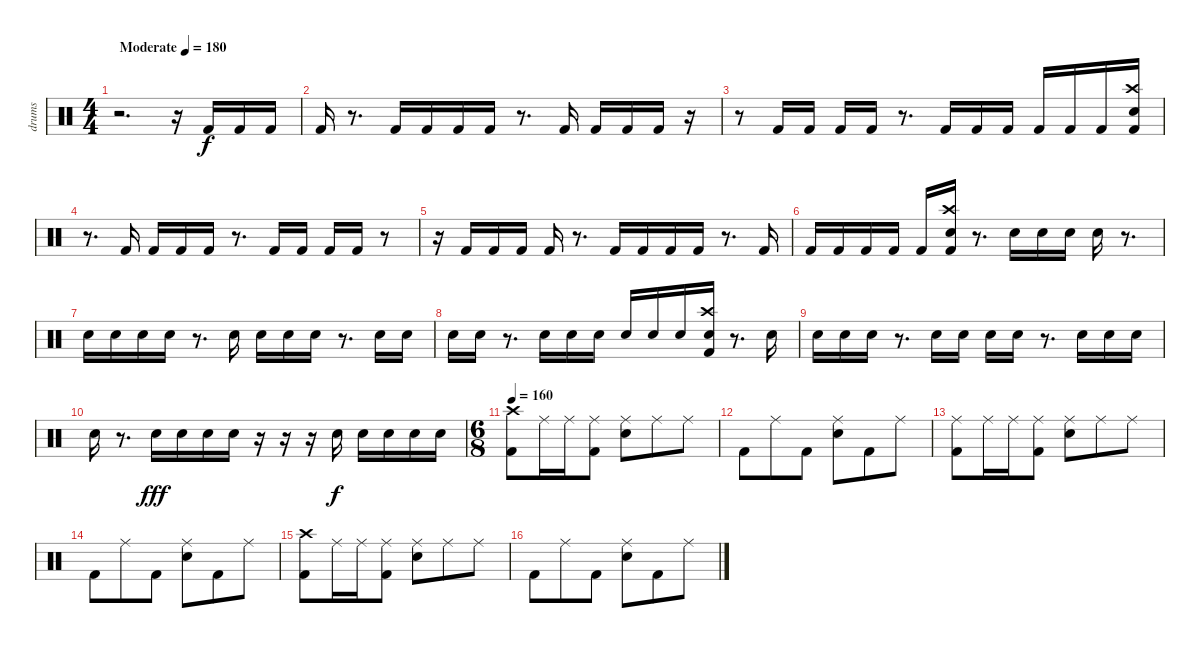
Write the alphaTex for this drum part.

\track ("drums" "drums") {instrument percussion}
\staff {score}
\articulation defaults
\ts (4 4)
\tempo (180 "Moderate")
\clef neutral
\ks c
r.2{d dy f} r.16 "Kick (hit) 2".16 "Kick (hit) 2".16 "Kick (hit) 2".16 |
"Kick (hit) 2".16 r.8{d} "Kick (hit) 2".16 "Kick (hit) 2".16 "Kick (hit) 2".16 "Kick (hit) 2".16 r.8{d} "Kick (hit) 2".16 "Kick (hit) 2".16 "Kick (hit) 2".16 "Kick (hit) 2".16 r.16 |
r.8 "Kick (hit) 2".16 "Kick (hit) 2".16 "Kick (hit) 2".16 "Kick (hit) 2".16 r.8{d} "Kick (hit) 2".16 "Kick (hit) 2".16 "Kick (hit) 2".16 "Kick (hit) 2".16 "Kick (hit) 2".16 "Kick (hit) 2".16 ("Crash high (hit)" "Electric Snare (hit)" "Kick (hit) 2").16 |
r.8{d} "Kick (hit) 2".16 "Kick (hit) 2".16 "Kick (hit) 2".16 "Kick (hit) 2".16 r.8{d} "Kick (hit) 2".16 "Kick (hit) 2".16 "Kick (hit) 2".16 "Kick (hit) 2".16 r.8 |
r.16 "Kick (hit) 2".16 "Kick (hit) 2".16 "Kick (hit) 2".16 "Kick (hit) 2".16 r.8{d} "Kick (hit) 2".16 "Kick (hit) 2".16 "Kick (hit) 2".16 "Kick (hit) 2".16 r.8{d} "Kick (hit) 2".16 |
"Kick (hit) 2".16 "Kick (hit) 2".16 "Kick (hit) 2".16 "Kick (hit) 2".16 "Kick (hit) 2".16 ("Crash high (hit)" "Electric Snare (hit)" "Kick (hit) 2").16 r.8{d} "Electric Snare (hit)".16 "Electric Snare (hit)".16 "Electric Snare (hit)".16 "Electric Snare (hit)".16 r.8{d} |
"Electric Snare (hit)".16 "Electric Snare (hit)".16 "Electric Snare (hit)".16 "Electric Snare (hit)".16 r.8{d} "Electric Snare (hit)".16 "Electric Snare (hit)".16 "Electric Snare (hit)".16 "Electric Snare (hit)".16 r.8{d} "Electric Snare (hit)".16 "Electric Snare (hit)".16 |
"Electric Snare (hit)".16 "Electric Snare (hit)".16 r.8{d} "Electric Snare (hit)".16 "Electric Snare (hit)".16 "Electric Snare (hit)".16 "Electric Snare (hit)".16 "Electric Snare (hit)".16 "Electric Snare (hit)".16 ("Crash high (hit)" "Kick (hit) 2" "Electric Snare (hit)").16 r.8{d} "Electric Snare (hit)".16 |
"Electric Snare (hit)".16 "Electric Snare (hit)".16 "Electric Snare (hit)".16 r.8{d} "Electric Snare (hit)".16 "Electric Snare (hit)".16 "Electric Snare (hit)".16 "Electric Snare (hit)".16 r.8{d} "Electric Snare (hit)".16 "Electric Snare (hit)".16 "Electric Snare (hit)".16 |
"Electric Snare (hit)".16 r.8{d} "Electric Snare (hit)".16{dy fff} "Electric Snare (hit)".16 "Electric Snare (hit)".16 "Electric Snare (hit)".16 r.16 r.16 r.16 "Electric Snare (hit)".16{dy f} "Electric Snare (hit)".16 "Electric Snare (hit)".16 "Electric Snare (hit)".16 "Electric Snare (hit)".16 |
\ts (6 8)
\tempo 160
("Kick (hit) 2" "Crash high (hit)").8 "Ride (middle)".16 "Ride (middle)".16 ("Kick (hit) 2" "Ride (middle)").8 ("Electric Snare (hit)" "Ride (middle)").8 "Ride (middle)".8 "Ride (middle)".8 |
"Kick (hit) 2".8 "Ride (middle)".8 "Kick (hit) 2".8 ("Electric Snare (hit)" "Ride (middle)").8 "Kick (hit) 2".8 "Ride (middle)".8 |
("Ride (middle)" "Kick (hit) 2").8 "Ride (middle)".16 "Ride (middle)".16 ("Kick (hit) 2" "Ride (middle)").8 ("Electric Snare (hit)" "Ride (middle)").8 "Ride (middle)".8 "Ride (middle)".8 |
"Kick (hit) 2".8 "Ride (middle)".8 "Kick (hit) 2".8 ("Electric Snare (hit)" "Ride (middle)").8 "Kick (hit) 2".8 "Ride (middle)".8 |
("Kick (hit) 2" "Crash high (hit)").8 "Ride (middle)".16 "Ride (middle)".16 ("Kick (hit) 2" "Ride (middle)").8 ("Electric Snare (hit)" "Ride (middle)").8 "Ride (middle)".8 "Ride (middle)".8 |
"Kick (hit) 2".8 "Ride (middle)".8 "Kick (hit) 2".8 ("Electric Snare (hit)" "Ride (middle)").8 "Kick (hit) 2".8 "Ride (middle)".8
